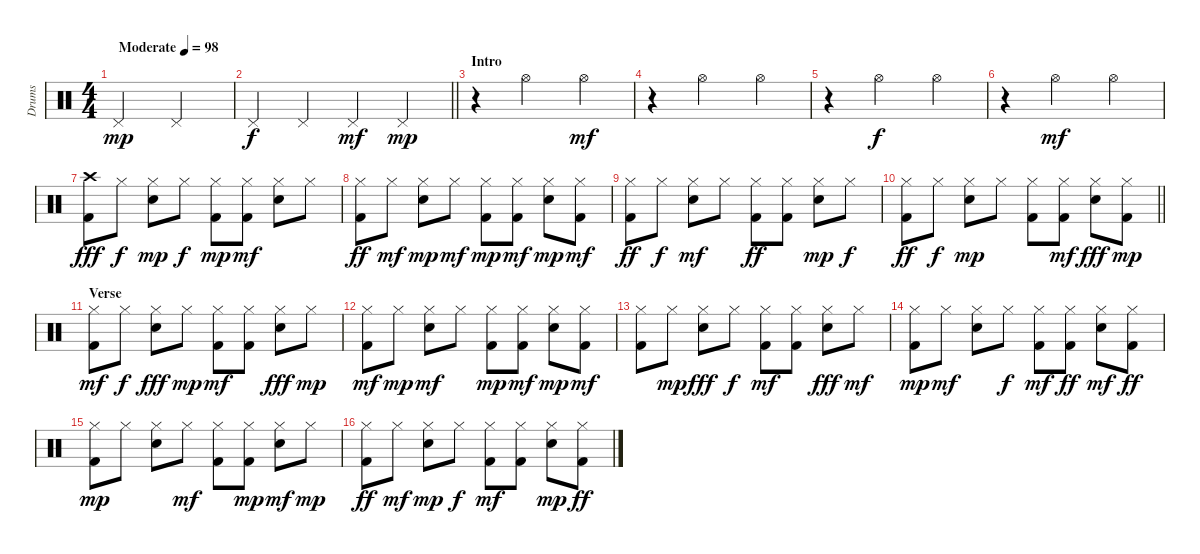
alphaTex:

\track ("Drums" "Drums") {instrument percussion}
\staff {score}
\articulation defaults
\ts (4 4)
\tempo (98 "Moderate")
\clef neutral
\ks c "Pedal Hi-Hat (hit)".2{dy mp} "Pedal Hi-Hat (hit)".2
|
\barLineRight lightlight "Pedal Hi-Hat (hit)".4{dy f} "Pedal Hi-Hat (hit)".4 "Pedal Hi-Hat (hit)".4{dy mf} "Pedal Hi-Hat (hit)".4{dy mp}
|
\section ("" "Intro")
r.4 "Hi-Hat (open)".2 "Hi-Hat (open)".4{dy mf} |
r.4 "Hi-Hat (open)".2 "Hi-Hat (open)".4 |
r.4 "Hi-Hat (open)".2{dy f} "Hi-Hat (open)".4 |
r.4 "Hi-Hat (open)".2{dy mf} "Hi-Hat (open)".4 |
("Kick (hit) 2" "Crash high (hit)").8{dy fff} "Hi-Hat (closed)".8{dy f} ("Electric Snare (hit)" "Hi-Hat (closed)").8{dy mp} "Hi-Hat (closed)".8{dy f} ("Kick (hit) 2" "Hi-Hat (closed)").8{dy mp} ("Kick (hit) 2" "Hi-Hat (closed)").8{dy mf} ("Electric Snare (hit)" "Hi-Hat (closed)").8 "Hi-Hat (closed)".8 |
("Kick (hit) 2" "Hi-Hat (closed)").8{dy ff} "Hi-Hat (closed)".8{dy mf} ("Electric Snare (hit)" "Hi-Hat (closed)").8{dy mp} "Hi-Hat (closed)".8{dy mf} ("Kick (hit) 2" "Hi-Hat (closed)").8{dy mp} ("Kick (hit) 2" "Hi-Hat (closed)").8{dy mf} ("Electric Snare (hit)" "Hi-Hat (closed)").8{dy mp} ("Kick (hit) 2" "Hi-Hat (closed)").8{dy mf} |
("Kick (hit) 2" "Hi-Hat (closed)").8{dy ff} "Hi-Hat (closed)".8{dy f} ("Electric Snare (hit)" "Hi-Hat (closed)").8{dy mf} "Hi-Hat (closed)".8 ("Kick (hit) 2" "Hi-Hat (closed)").8{dy ff} ("Kick (hit) 2" "Hi-Hat (closed)").8 ("Electric Snare (hit)" "Hi-Hat (closed)").8{dy mp} "Hi-Hat (closed)".8{dy f} |
\barLineRight lightlight
("Kick (hit) 2" "Hi-Hat (closed)").8{dy ff} "Hi-Hat (closed)".8{dy f} ("Electric Snare (hit)" "Hi-Hat (closed)").8{dy mp} "Hi-Hat (closed)".8 ("Kick (hit) 2" "Hi-Hat (closed)").8 ("Kick (hit) 2" "Hi-Hat (closed)").8{dy mf} ("Electric Snare (hit)" "Hi-Hat (closed)").8{dy fff} ("Kick (hit) 2" "Hi-Hat (closed)").8{dy mp} |
\section ("" "Verse")
("Kick (hit) 2" "Hi-Hat (closed)").8{dy mf} "Hi-Hat (closed)".8{dy f} ("Electric Snare (hit)" "Hi-Hat (closed)").8{dy fff} "Hi-Hat (closed)".8{dy mp} ("Kick (hit) 2" "Hi-Hat (closed)").8{dy mf} ("Kick (hit) 2" "Hi-Hat (closed)").8 ("Electric Snare (hit)" "Hi-Hat (closed)").8{dy fff} "Hi-Hat (closed)".8{dy mp} |
("Kick (hit) 2" "Hi-Hat (closed)").8{dy mf} "Hi-Hat (closed)".8{dy mp} ("Electric Snare (hit)" "Hi-Hat (closed)").8{dy mf} "Hi-Hat (closed)".8 ("Kick (hit) 2" "Hi-Hat (closed)").8{dy mp} ("Kick (hit) 2" "Hi-Hat (closed)").8{dy mf} ("Electric Snare (hit)" "Hi-Hat (closed)").8{dy mp} ("Kick (hit) 2" "Hi-Hat (closed)").8{dy mf} |
("Kick (hit) 2" "Hi-Hat (closed)").8 "Hi-Hat (closed)".8{dy mp} ("Electric Snare (hit)" "Hi-Hat (closed)").8{dy fff} "Hi-Hat (closed)".8{dy f} ("Kick (hit) 2" "Hi-Hat (closed)").8{dy mf} ("Kick (hit) 2" "Hi-Hat (closed)").8 ("Electric Snare (hit)" "Hi-Hat (closed)").8{dy fff} "Hi-Hat (closed)".8{dy mf} |
("Kick (hit) 2" "Hi-Hat (closed)").8{dy mp} "Hi-Hat (closed)".8{dy mf} ("Electric Snare (hit)" "Hi-Hat (closed)").8 "Hi-Hat (closed)".8{dy f} ("Kick (hit) 2" "Hi-Hat (closed)").8{dy mf} ("Kick (hit) 2" "Hi-Hat (closed)").8{dy ff} ("Electric Snare (hit)" "Hi-Hat (closed)").8{dy mf} ("Kick (hit) 2" "Hi-Hat (closed)").8{dy ff} |
("Kick (hit) 2" "Hi-Hat (closed)").8{dy mp} "Hi-Hat (closed)".8 ("Electric Snare (hit)" "Hi-Hat (closed)").8 "Hi-Hat (closed)".8{dy mf} ("Kick (hit) 2" "Hi-Hat (closed)").8 ("Kick (hit) 2" "Hi-Hat (closed)").8{dy mp} ("Electric Snare (hit)" "Hi-Hat (closed)").8{dy mf} "Hi-Hat (closed)".8{dy mp} |
("Kick (hit) 2" "Hi-Hat (closed)").8{dy ff} "Hi-Hat (closed)".8{dy mf} ("Electric Snare (hit)" "Hi-Hat (closed)").8{dy mp} "Hi-Hat (closed)".8{dy f} ("Kick (hit) 2" "Hi-Hat (closed)").8{dy mf} ("Kick (hit) 2" "Hi-Hat (closed)").8 ("Electric Snare (hit)" "Hi-Hat (closed)").8{dy mp} ("Kick (hit) 2" "Hi-Hat (closed)").8{dy ff}
